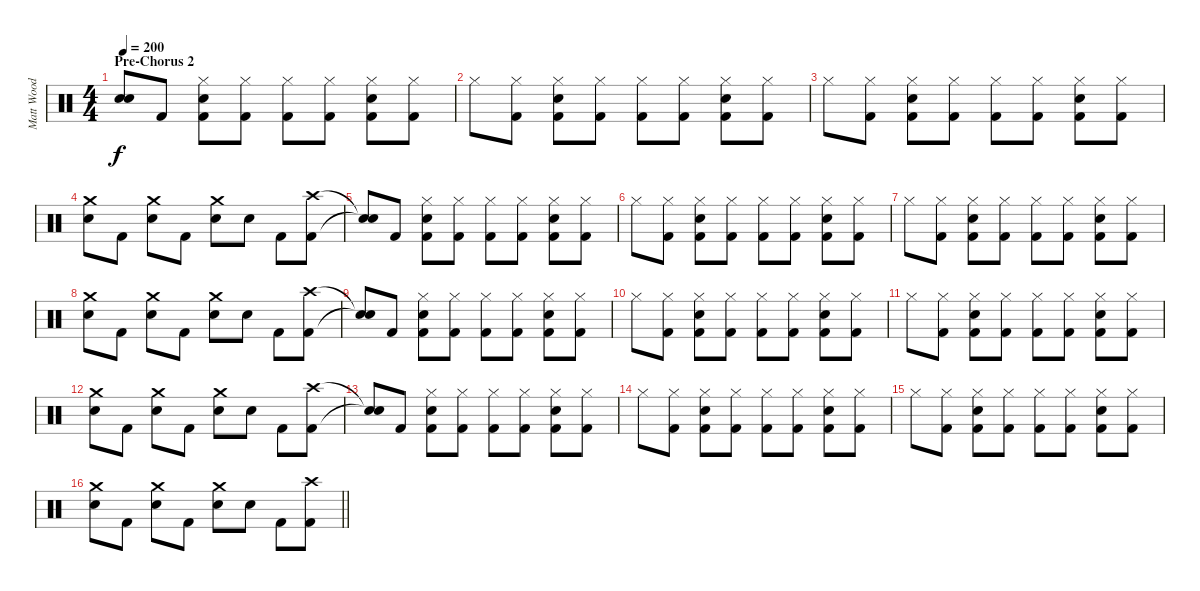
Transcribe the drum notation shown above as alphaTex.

\track ("Matt Wood" "Matt Wood") {instrument percussion}
\staff {score}
\articulation defaults
\ts (4 4)
\section ("" "Pre-Chorus 2")
\tempo 200
\clef neutral
\ks c
("Snare (hit)"{t} "Snare (hit)"{t}).8{dy f} "Kick (hit) 2".8 ("Hi-Hat (closed)" "Snare (hit) 2" "Kick (hit) 2").8 ("Hi-Hat (closed)" "Kick (hit) 2").8 ("Hi-Hat (closed)" "Kick (hit) 2").8 ("Hi-Hat (closed)" "Kick (hit) 2").8 ("Hi-Hat (closed)" "Snare (hit) 2" "Kick (hit) 2").8 ("Hi-Hat (closed)" "Kick (hit) 2").8 |
"Hi-Hat (closed)".8 ("Hi-Hat (closed)" "Kick (hit) 2").8 ("Hi-Hat (closed)" "Snare (hit) 2" "Kick (hit) 2").8 ("Hi-Hat (closed)" "Kick (hit) 2").8 ("Hi-Hat (closed)" "Kick (hit) 2").8 ("Hi-Hat (closed)" "Kick (hit) 2").8 ("Hi-Hat (closed)" "Snare (hit) 2" "Kick (hit) 2").8 ("Hi-Hat (closed)" "Kick (hit) 2").8 |
"Hi-Hat (closed)".8 ("Hi-Hat (closed)" "Kick (hit) 2").8 ("Hi-Hat (closed)" "Snare (hit) 2" "Kick (hit) 2").8 ("Hi-Hat (closed)" "Kick (hit) 2").8 ("Hi-Hat (closed)" "Kick (hit) 2").8 ("Hi-Hat (closed)" "Kick (hit) 2").8 ("Hi-Hat (closed)" "Snare (hit) 2" "Kick (hit) 2").8 ("Hi-Hat (closed)" "Kick (hit) 2").8 |
("Crash medium (hit)" "Snare (hit) 2").8 "Kick (hit) 2".8 ("Crash medium (hit)" "Snare (hit) 2").8 "Kick (hit) 2".8 ("Crash medium (hit)" "Snare (hit) 2").8 "Snare (hit) 2".8 "Kick (hit) 2".8 ("Crash high (hit)" "Kick (hit) 2").8 |
("Snare (hit)"{t} "Snare (hit)"{t}).8 "Kick (hit) 2".8 ("Hi-Hat (closed)" "Snare (hit) 2" "Kick (hit) 2").8 ("Hi-Hat (closed)" "Kick (hit) 2").8 ("Hi-Hat (closed)" "Kick (hit) 2").8 ("Hi-Hat (closed)" "Kick (hit) 2").8 ("Hi-Hat (closed)" "Snare (hit) 2" "Kick (hit) 2").8 ("Hi-Hat (closed)" "Kick (hit) 2").8 |
"Hi-Hat (closed)".8 ("Hi-Hat (closed)" "Kick (hit) 2").8 ("Hi-Hat (closed)" "Snare (hit) 2" "Kick (hit) 2").8 ("Hi-Hat (closed)" "Kick (hit) 2").8 ("Hi-Hat (closed)" "Kick (hit) 2").8 ("Hi-Hat (closed)" "Kick (hit) 2").8 ("Hi-Hat (closed)" "Snare (hit) 2" "Kick (hit) 2").8 ("Hi-Hat (closed)" "Kick (hit) 2").8 |
"Hi-Hat (closed)".8 ("Hi-Hat (closed)" "Kick (hit) 2").8 ("Hi-Hat (closed)" "Snare (hit) 2" "Kick (hit) 2").8 ("Hi-Hat (closed)" "Kick (hit) 2").8 ("Hi-Hat (closed)" "Kick (hit) 2").8 ("Hi-Hat (closed)" "Kick (hit) 2").8 ("Hi-Hat (closed)" "Snare (hit) 2" "Kick (hit) 2").8 ("Hi-Hat (closed)" "Kick (hit) 2").8 |
("Crash medium (hit)" "Snare (hit) 2").8 "Kick (hit) 2".8 ("Crash medium (hit)" "Snare (hit) 2").8 "Kick (hit) 2".8 ("Crash medium (hit)" "Snare (hit) 2").8 "Snare (hit) 2".8 "Kick (hit) 2".8 ("Crash high (hit)" "Kick (hit) 2").8 |
("Snare (hit)"{t} "Snare (hit)"{t}).8 "Kick (hit) 2".8 ("Hi-Hat (closed)" "Snare (hit) 2" "Kick (hit) 2").8 ("Hi-Hat (closed)" "Kick (hit) 2").8 ("Hi-Hat (closed)" "Kick (hit) 2").8 ("Hi-Hat (closed)" "Kick (hit) 2").8 ("Hi-Hat (closed)" "Snare (hit) 2" "Kick (hit) 2").8 ("Hi-Hat (closed)" "Kick (hit) 2").8 |
"Hi-Hat (closed)".8 ("Hi-Hat (closed)" "Kick (hit) 2").8 ("Hi-Hat (closed)" "Snare (hit) 2" "Kick (hit) 2").8 ("Hi-Hat (closed)" "Kick (hit) 2").8 ("Hi-Hat (closed)" "Kick (hit) 2").8 ("Hi-Hat (closed)" "Kick (hit) 2").8 ("Hi-Hat (closed)" "Snare (hit) 2" "Kick (hit) 2").8 ("Hi-Hat (closed)" "Kick (hit) 2").8 |
"Hi-Hat (closed)".8 ("Hi-Hat (closed)" "Kick (hit) 2").8 ("Hi-Hat (closed)" "Snare (hit) 2" "Kick (hit) 2").8 ("Hi-Hat (closed)" "Kick (hit) 2").8 ("Hi-Hat (closed)" "Kick (hit) 2").8 ("Hi-Hat (closed)" "Kick (hit) 2").8 ("Hi-Hat (closed)" "Snare (hit) 2" "Kick (hit) 2").8 ("Hi-Hat (closed)" "Kick (hit) 2").8 |
("Crash medium (hit)" "Snare (hit) 2").8 "Kick (hit) 2".8 ("Crash medium (hit)" "Snare (hit) 2").8 "Kick (hit) 2".8 ("Crash medium (hit)" "Snare (hit) 2").8 "Snare (hit) 2".8 "Kick (hit) 2".8 ("Crash high (hit)" "Kick (hit) 2").8 |
("Snare (hit)"{t} "Snare (hit)"{t}).8 "Kick (hit) 2".8 ("Hi-Hat (closed)" "Snare (hit) 2" "Kick (hit) 2").8 ("Hi-Hat (closed)" "Kick (hit) 2").8 ("Hi-Hat (closed)" "Kick (hit) 2").8 ("Hi-Hat (closed)" "Kick (hit) 2").8 ("Hi-Hat (closed)" "Snare (hit) 2" "Kick (hit) 2").8 ("Hi-Hat (closed)" "Kick (hit) 2").8 |
"Hi-Hat (closed)".8 ("Hi-Hat (closed)" "Kick (hit) 2").8 ("Hi-Hat (closed)" "Snare (hit) 2" "Kick (hit) 2").8 ("Hi-Hat (closed)" "Kick (hit) 2").8 ("Hi-Hat (closed)" "Kick (hit) 2").8 ("Hi-Hat (closed)" "Kick (hit) 2").8 ("Hi-Hat (closed)" "Snare (hit) 2" "Kick (hit) 2").8 ("Hi-Hat (closed)" "Kick (hit) 2").8 |
"Hi-Hat (closed)".8 ("Hi-Hat (closed)" "Kick (hit) 2").8 ("Hi-Hat (closed)" "Snare (hit) 2" "Kick (hit) 2").8 ("Hi-Hat (closed)" "Kick (hit) 2").8 ("Hi-Hat (closed)" "Kick (hit) 2").8 ("Hi-Hat (closed)" "Kick (hit) 2").8 ("Hi-Hat (closed)" "Snare (hit) 2" "Kick (hit) 2").8 ("Hi-Hat (closed)" "Kick (hit) 2").8 |
\barLineRight lightlight
("Crash medium (hit)" "Snare (hit) 2").8 "Kick (hit) 2".8 ("Crash medium (hit)" "Snare (hit) 2").8 "Kick (hit) 2".8 ("Crash medium (hit)" "Snare (hit) 2").8 "Snare (hit) 2".8 "Kick (hit) 2".8 ("Crash high (hit)" "Kick (hit) 2").8
